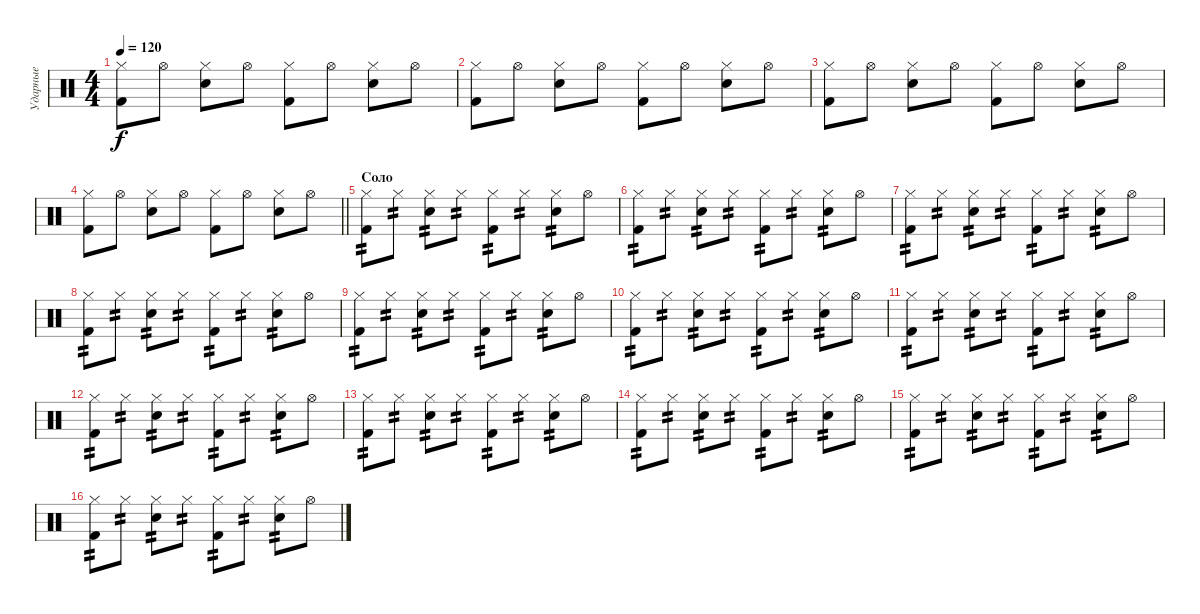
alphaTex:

\track ("Ударные" "Ударные") {instrument percussion}
\staff {score}
\articulation defaults
\ts (4 4)
\tempo 120
\clef neutral
\ks c
("Hi-Hat (closed)" "Kick (hit) 2").8{dy f} "Hi-Hat (open)".8 ("Hi-Hat (closed)" "Snare (hit) 2").8 "Hi-Hat (open)".8 ("Hi-Hat (closed)" "Kick (hit) 2").8 "Hi-Hat (open)".8 ("Hi-Hat (closed)" "Snare (hit) 2").8 "Hi-Hat (open)".8 |
("Hi-Hat (closed)" "Kick (hit) 2").8 "Hi-Hat (open)".8 ("Hi-Hat (closed)" "Snare (hit) 2").8 "Hi-Hat (open)".8 ("Hi-Hat (closed)" "Kick (hit) 2").8 "Hi-Hat (open)".8 ("Hi-Hat (closed)" "Snare (hit) 2").8 "Hi-Hat (open)".8 |
("Hi-Hat (closed)" "Kick (hit) 2").8 "Hi-Hat (open)".8 ("Hi-Hat (closed)" "Snare (hit) 2").8 "Hi-Hat (open)".8 ("Hi-Hat (closed)" "Kick (hit) 2").8 "Hi-Hat (open)".8 ("Hi-Hat (closed)" "Snare (hit) 2").8 "Hi-Hat (open)".8 |
\barLineRight lightlight
("Hi-Hat (closed)" "Kick (hit) 2").8 "Hi-Hat (open)".8 ("Hi-Hat (closed)" "Snare (hit) 2").8 "Hi-Hat (open)".8 ("Hi-Hat (closed)" "Kick (hit) 2").8 "Hi-Hat (open)".8 ("Hi-Hat (closed)" "Snare (hit) 2").8 "Hi-Hat (open)".8 |
\section ("" "Соло")
("Hi-Hat (closed)" "Kick (hit) 2").8{tp 2} "Hi-Hat (closed)".8{tp 2} ("Hi-Hat (closed)" "Snare (hit) 2").8{tp 2} "Hi-Hat (closed)".8{tp 2} ("Hi-Hat (closed)" "Kick (hit) 2").8{tp 2} "Hi-Hat (closed)".8{tp 2} ("Hi-Hat (closed)" "Snare (hit) 2").8{tp 2} "Hi-Hat (open)".8 |
("Hi-Hat (closed)" "Kick (hit) 2").8{tp 2} "Hi-Hat (closed)".8{tp 2} ("Hi-Hat (closed)" "Snare (hit) 2").8{tp 2} "Hi-Hat (closed)".8{tp 2} ("Hi-Hat (closed)" "Kick (hit) 2").8{tp 2} "Hi-Hat (closed)".8{tp 2} ("Hi-Hat (closed)" "Snare (hit) 2").8{tp 2} "Hi-Hat (open)".8 |
("Hi-Hat (closed)" "Kick (hit) 2").8{tp 2} "Hi-Hat (closed)".8{tp 2} ("Hi-Hat (closed)" "Snare (hit) 2").8{tp 2} "Hi-Hat (closed)".8{tp 2} ("Hi-Hat (closed)" "Kick (hit) 2").8{tp 2} "Hi-Hat (closed)".8{tp 2} ("Hi-Hat (closed)" "Snare (hit) 2").8{tp 2} "Hi-Hat (open)".8 |
("Hi-Hat (closed)" "Kick (hit) 2").8{tp 2} "Hi-Hat (closed)".8{tp 2} ("Hi-Hat (closed)" "Snare (hit) 2").8{tp 2} "Hi-Hat (closed)".8{tp 2} ("Hi-Hat (closed)" "Kick (hit) 2").8{tp 2} "Hi-Hat (closed)".8{tp 2} ("Hi-Hat (closed)" "Snare (hit) 2").8{tp 2} "Hi-Hat (open)".8 |
("Hi-Hat (closed)" "Kick (hit) 2").8{tp 2} "Hi-Hat (closed)".8{tp 2} ("Hi-Hat (closed)" "Snare (hit) 2").8{tp 2} "Hi-Hat (closed)".8{tp 2} ("Hi-Hat (closed)" "Kick (hit) 2").8{tp 2} "Hi-Hat (closed)".8{tp 2} ("Hi-Hat (closed)" "Snare (hit) 2").8{tp 2} "Hi-Hat (open)".8 |
("Hi-Hat (closed)" "Kick (hit) 2").8{tp 2} "Hi-Hat (closed)".8{tp 2} ("Hi-Hat (closed)" "Snare (hit) 2").8{tp 2} "Hi-Hat (closed)".8{tp 2} ("Hi-Hat (closed)" "Kick (hit) 2").8{tp 2} "Hi-Hat (closed)".8{tp 2} ("Hi-Hat (closed)" "Snare (hit) 2").8{tp 2} "Hi-Hat (open)".8 |
("Hi-Hat (closed)" "Kick (hit) 2").8{tp 2} "Hi-Hat (closed)".8{tp 2} ("Hi-Hat (closed)" "Snare (hit) 2").8{tp 2} "Hi-Hat (closed)".8{tp 2} ("Hi-Hat (closed)" "Kick (hit) 2").8{tp 2} "Hi-Hat (closed)".8{tp 2} ("Hi-Hat (closed)" "Snare (hit) 2").8{tp 2} "Hi-Hat (open)".8 |
("Hi-Hat (closed)" "Kick (hit) 2").8{tp 2} "Hi-Hat (closed)".8{tp 2} ("Hi-Hat (closed)" "Snare (hit) 2").8{tp 2} "Hi-Hat (closed)".8{tp 2} ("Hi-Hat (closed)" "Kick (hit) 2").8{tp 2} "Hi-Hat (closed)".8{tp 2} ("Hi-Hat (closed)" "Snare (hit) 2").8{tp 2} "Hi-Hat (open)".8 |
("Hi-Hat (closed)" "Kick (hit) 2").8{tp 2} "Hi-Hat (closed)".8{tp 2} ("Hi-Hat (closed)" "Snare (hit) 2").8{tp 2} "Hi-Hat (closed)".8{tp 2} ("Hi-Hat (closed)" "Kick (hit) 2").8{tp 2} "Hi-Hat (closed)".8{tp 2} ("Hi-Hat (closed)" "Snare (hit) 2").8{tp 2} "Hi-Hat (open)".8 |
("Hi-Hat (closed)" "Kick (hit) 2").8{tp 2} "Hi-Hat (closed)".8{tp 2} ("Hi-Hat (closed)" "Snare (hit) 2").8{tp 2} "Hi-Hat (closed)".8{tp 2} ("Hi-Hat (closed)" "Kick (hit) 2").8{tp 2} "Hi-Hat (closed)".8{tp 2} ("Hi-Hat (closed)" "Snare (hit) 2").8{tp 2} "Hi-Hat (open)".8 |
("Hi-Hat (closed)" "Kick (hit) 2").8{tp 2} "Hi-Hat (closed)".8{tp 2} ("Hi-Hat (closed)" "Snare (hit) 2").8{tp 2} "Hi-Hat (closed)".8{tp 2} ("Hi-Hat (closed)" "Kick (hit) 2").8{tp 2} "Hi-Hat (closed)".8{tp 2} ("Hi-Hat (closed)" "Snare (hit) 2").8{tp 2} "Hi-Hat (open)".8 |
("Hi-Hat (closed)" "Kick (hit) 2").8{tp 2} "Hi-Hat (closed)".8{tp 2} ("Hi-Hat (closed)" "Snare (hit) 2").8{tp 2} "Hi-Hat (closed)".8{tp 2} ("Hi-Hat (closed)" "Kick (hit) 2").8{tp 2} "Hi-Hat (closed)".8{tp 2} ("Hi-Hat (closed)" "Snare (hit) 2").8{tp 2} "Hi-Hat (open)".8
